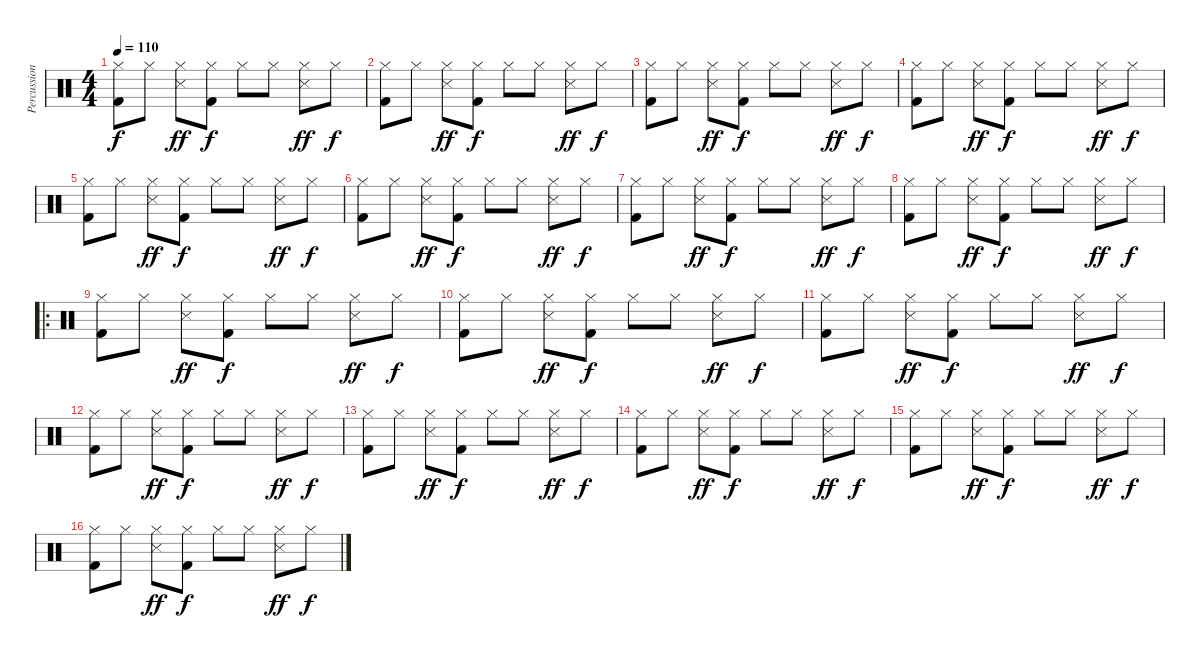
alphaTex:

\track ("Percussion" "Percussion") {instrument percussion}
\staff {score}
\articulation defaults
\ts (4 4)
\tempo 110
\clef neutral
\ks c
("Hi-Hat (closed)" "Kick (hit) 2").8{dy f} "Hi-Hat (closed)".8 ("Hi-Hat (closed)" "Snare (side stick) 3").8{dy ff} ("Hi-Hat (closed)" "Kick (hit) 2").8{dy f} "Hi-Hat (closed)".8 "Hi-Hat (closed)".8 ("Hi-Hat (closed)" "Snare (side stick) 3").8{dy ff} "Hi-Hat (closed)".8{dy f} |
("Hi-Hat (closed)" "Kick (hit) 2").8 "Hi-Hat (closed)".8 ("Hi-Hat (closed)" "Snare (side stick) 3").8{dy ff} ("Hi-Hat (closed)" "Kick (hit) 2").8{dy f} "Hi-Hat (closed)".8 "Hi-Hat (closed)".8 ("Hi-Hat (closed)" "Snare (side stick) 3").8{dy ff} "Hi-Hat (closed)".8{dy f} |
("Hi-Hat (closed)" "Kick (hit) 2").8 "Hi-Hat (closed)".8 ("Hi-Hat (closed)" "Snare (side stick) 3").8{dy ff} ("Hi-Hat (closed)" "Kick (hit) 2").8{dy f} "Hi-Hat (closed)".8 "Hi-Hat (closed)".8 ("Hi-Hat (closed)" "Snare (side stick) 3").8{dy ff} "Hi-Hat (closed)".8{dy f} |
("Hi-Hat (closed)" "Kick (hit) 2").8 "Hi-Hat (closed)".8 ("Hi-Hat (closed)" "Snare (side stick) 3").8{dy ff} ("Hi-Hat (closed)" "Kick (hit) 2").8{dy f} "Hi-Hat (closed)".8 "Hi-Hat (closed)".8 ("Hi-Hat (closed)" "Snare (side stick) 3").8{dy ff} "Hi-Hat (closed)".8{dy f} |
("Hi-Hat (closed)" "Kick (hit) 2").8 "Hi-Hat (closed)".8 ("Hi-Hat (closed)" "Snare (side stick) 3").8{dy ff} ("Hi-Hat (closed)" "Kick (hit) 2").8{dy f} "Hi-Hat (closed)".8 "Hi-Hat (closed)".8 ("Hi-Hat (closed)" "Snare (side stick) 3").8{dy ff} "Hi-Hat (closed)".8{dy f} |
("Hi-Hat (closed)" "Kick (hit) 2").8 "Hi-Hat (closed)".8 ("Hi-Hat (closed)" "Snare (side stick) 3").8{dy ff} ("Hi-Hat (closed)" "Kick (hit) 2").8{dy f} "Hi-Hat (closed)".8 "Hi-Hat (closed)".8 ("Hi-Hat (closed)" "Snare (side stick) 3").8{dy ff} "Hi-Hat (closed)".8{dy f} |
("Hi-Hat (closed)" "Kick (hit) 2").8 "Hi-Hat (closed)".8 ("Hi-Hat (closed)" "Snare (side stick) 3").8{dy ff} ("Hi-Hat (closed)" "Kick (hit) 2").8{dy f} "Hi-Hat (closed)".8 "Hi-Hat (closed)".8 ("Hi-Hat (closed)" "Snare (side stick) 3").8{dy ff} "Hi-Hat (closed)".8{dy f} |
("Hi-Hat (closed)" "Kick (hit) 2").8 "Hi-Hat (closed)".8 ("Hi-Hat (closed)" "Snare (side stick) 3").8{dy ff} ("Hi-Hat (closed)" "Kick (hit) 2").8{dy f} "Hi-Hat (closed)".8 "Hi-Hat (closed)".8 ("Hi-Hat (closed)" "Snare (side stick) 3").8{dy ff} "Hi-Hat (closed)".8{dy f} |
\ro
("Hi-Hat (closed)" "Kick (hit) 2").8 "Hi-Hat (closed)".8 ("Hi-Hat (closed)" "Snare (side stick) 3").8{dy ff} ("Hi-Hat (closed)" "Kick (hit) 2").8{dy f} "Hi-Hat (closed)".8 "Hi-Hat (closed)".8 ("Hi-Hat (closed)" "Snare (side stick) 3").8{dy ff} "Hi-Hat (closed)".8{dy f} |
("Hi-Hat (closed)" "Kick (hit) 2").8 "Hi-Hat (closed)".8 ("Hi-Hat (closed)" "Snare (side stick) 3").8{dy ff} ("Hi-Hat (closed)" "Kick (hit) 2").8{dy f} "Hi-Hat (closed)".8 "Hi-Hat (closed)".8 ("Hi-Hat (closed)" "Snare (side stick) 3").8{dy ff} "Hi-Hat (closed)".8{dy f} |
("Hi-Hat (closed)" "Kick (hit) 2").8 "Hi-Hat (closed)".8 ("Hi-Hat (closed)" "Snare (side stick) 3").8{dy ff} ("Hi-Hat (closed)" "Kick (hit) 2").8{dy f} "Hi-Hat (closed)".8 "Hi-Hat (closed)".8 ("Hi-Hat (closed)" "Snare (side stick) 3").8{dy ff} "Hi-Hat (closed)".8{dy f} |
("Hi-Hat (closed)" "Kick (hit) 2").8 "Hi-Hat (closed)".8 ("Hi-Hat (closed)" "Snare (side stick) 3").8{dy ff} ("Hi-Hat (closed)" "Kick (hit) 2").8{dy f} "Hi-Hat (closed)".8 "Hi-Hat (closed)".8 ("Hi-Hat (closed)" "Snare (side stick) 3").8{dy ff} "Hi-Hat (closed)".8{dy f} |
("Hi-Hat (closed)" "Kick (hit) 2").8 "Hi-Hat (closed)".8 ("Hi-Hat (closed)" "Snare (side stick) 3").8{dy ff} ("Hi-Hat (closed)" "Kick (hit) 2").8{dy f} "Hi-Hat (closed)".8 "Hi-Hat (closed)".8 ("Hi-Hat (closed)" "Snare (side stick) 3").8{dy ff} "Hi-Hat (closed)".8{dy f} |
("Hi-Hat (closed)" "Kick (hit) 2").8 "Hi-Hat (closed)".8 ("Hi-Hat (closed)" "Snare (side stick) 3").8{dy ff} ("Hi-Hat (closed)" "Kick (hit) 2").8{dy f} "Hi-Hat (closed)".8 "Hi-Hat (closed)".8 ("Hi-Hat (closed)" "Snare (side stick) 3").8{dy ff} "Hi-Hat (closed)".8{dy f} |
("Hi-Hat (closed)" "Kick (hit) 2").8 "Hi-Hat (closed)".8 ("Hi-Hat (closed)" "Snare (side stick) 3").8{dy ff} ("Hi-Hat (closed)" "Kick (hit) 2").8{dy f} "Hi-Hat (closed)".8 "Hi-Hat (closed)".8 ("Hi-Hat (closed)" "Snare (side stick) 3").8{dy ff} "Hi-Hat (closed)".8{dy f} |
("Hi-Hat (closed)" "Kick (hit) 2").8 "Hi-Hat (closed)".8 ("Hi-Hat (closed)" "Snare (side stick) 3").8{dy ff} ("Hi-Hat (closed)" "Kick (hit) 2").8{dy f} "Hi-Hat (closed)".8 "Hi-Hat (closed)".8 ("Hi-Hat (closed)" "Snare (side stick) 3").8{dy ff} "Hi-Hat (closed)".8{dy f}
